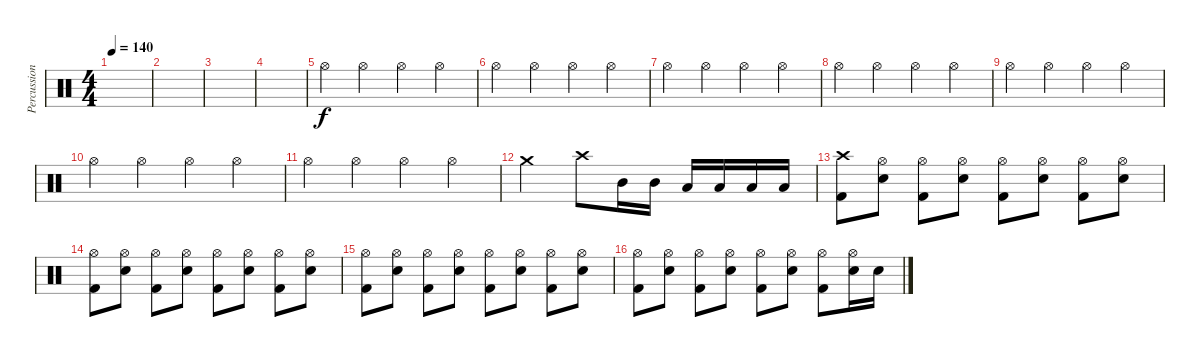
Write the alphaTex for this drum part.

\track ("Percussions" "Percussion") {instrument percussion}
\staff {score}
\articulation defaults
\ts (4 4)
\tempo 140
\clef neutral
\ks c
|
|
|
|
"Hi-Hat (open)".4 "Hi-Hat (open)".4 "Hi-Hat (open)".4 "Hi-Hat (open)".4 |
"Hi-Hat (open)".4 "Hi-Hat (open)".4 "Hi-Hat (open)".4 "Hi-Hat (open)".4 |
"Hi-Hat (open)".4 "Hi-Hat (open)".4 "Hi-Hat (open)".4 "Hi-Hat (open)".4 |
"Hi-Hat (open)".4 "Hi-Hat (open)".4 "Hi-Hat (open)".4 "Hi-Hat (open)".4 |
"Hi-Hat (open)".4 "Hi-Hat (open)".4 "Hi-Hat (open)".4 "Hi-Hat (open)".4 |
"Hi-Hat (open)".4 "Hi-Hat (open)".4 "Hi-Hat (open)".4 "Hi-Hat (open)".4 |
"Hi-Hat (open)".4 "Hi-Hat (open)".4 "Hi-Hat (open)".4 "Hi-Hat (open)".4 |
"Crash medium (hit)".2 "Crash high (hit)".8 "Mid Tom (hit)".16 "Mid Tom (hit)".16 "Low Tom (hit)".16 "Low Tom (hit)".16 "Low Floor Tom (hit)".16 "Low Floor Tom (hit)".16 |
("Crash high (hit)" "Kick (hit) 2").8 ("Hi-Hat (open)" "Electric Snare (hit)").8 ("Hi-Hat (open)" "Kick (hit) 2").8 ("Hi-Hat (open)" "Electric Snare (hit)").8 ("Hi-Hat (open)" "Kick (hit) 2").8 ("Hi-Hat (open)" "Electric Snare (hit)").8 ("Hi-Hat (open)" "Kick (hit) 2").8 ("Hi-Hat (open)" "Electric Snare (hit)").8 |
("Hi-Hat (open)" "Kick (hit) 2").8 ("Hi-Hat (open)" "Electric Snare (hit)").8 ("Hi-Hat (open)" "Kick (hit) 2").8 ("Hi-Hat (open)" "Electric Snare (hit)").8 ("Hi-Hat (open)" "Kick (hit) 2").8 ("Hi-Hat (open)" "Electric Snare (hit)").8 ("Hi-Hat (open)" "Kick (hit) 2").8 ("Hi-Hat (open)" "Electric Snare (hit)").8 |
("Hi-Hat (open)" "Kick (hit) 2").8 ("Hi-Hat (open)" "Electric Snare (hit)").8 ("Hi-Hat (open)" "Kick (hit) 2").8 ("Hi-Hat (open)" "Electric Snare (hit)").8 ("Hi-Hat (open)" "Kick (hit) 2").8 ("Hi-Hat (open)" "Electric Snare (hit)").8 ("Hi-Hat (open)" "Kick (hit) 2").8 ("Hi-Hat (open)" "Electric Snare (hit)").8 |
("Hi-Hat (open)" "Kick (hit) 2").8 ("Hi-Hat (open)" "Electric Snare (hit)").8 ("Hi-Hat (open)" "Kick (hit) 2").8 ("Hi-Hat (open)" "Electric Snare (hit)").8 ("Hi-Hat (open)" "Kick (hit) 2").8 ("Hi-Hat (open)" "Electric Snare (hit)").8 ("Hi-Hat (open)" "Kick (hit) 2").8 ("Hi-Hat (open)" "Electric Snare (hit)").16 "Electric Snare (hit)".16
